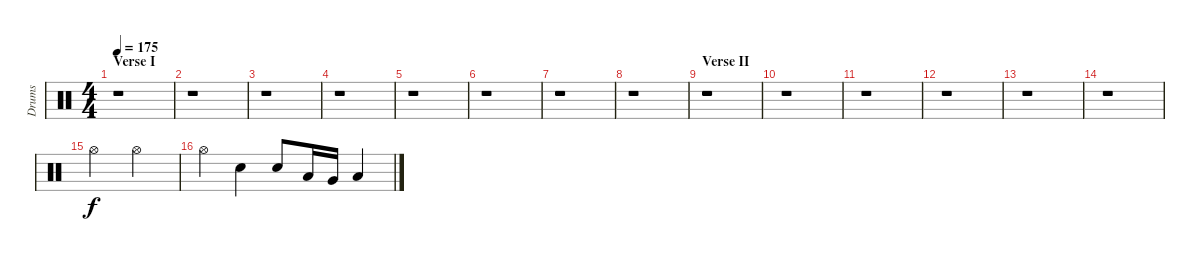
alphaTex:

\track ("Drums" "Drums") {instrument percussion}
\staff {score}
\articulation defaults
\ts (4 4)
\section ("" "Verse I")
\tempo 175
\clef neutral
\ks c
r.1{dy f} |
r.1 |
r.1 |
r.1 |
r.1 |
r.1 |
r.1 |
r.1 |
\section ("" "Verse II")
r.1 |
r.1 |
r.1 |
r.1 |
r.1 |
r.1 |
"Hi-Hat (open)".2 "Hi-Hat (open)".2 |
"Hi-Hat (open)".4 "Snare (hit) 2".4 "Snare (hit) 2".8 "Low Tom (hit)".16 "Very Low Tom (hit)".16 "Low Floor Tom (hit)".4
